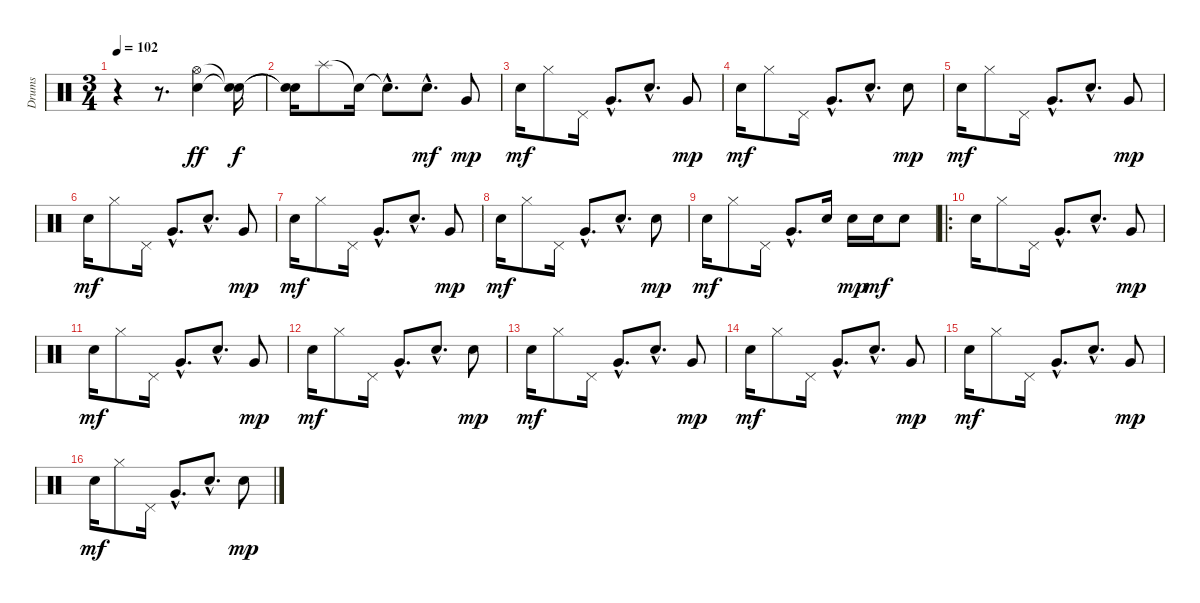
\track ("Drums" "Drums") {instrument percussion}
\staff {score}
\articulation defaults
\ts (3 4)
\tempo 102
\clef neutral
\ks c
r.4{dy ff} r.8{d} ("Hi-Hat (open)" "Electric Snare (hit)").4 ("Snare (hit)"{t} "Snare (hit)"{t}).16{dy f} |
("Snare (hit)"{t} "Snare (hit)"{t}).16 "Splash (hit)".8 "Snare (hit)"{t}.16 "Snare (hit)"{hac t}.8{d} "Electric Snare (hit)"{hac}.8{d dy mf} "Very Low Tom (hit)".8{dy mp} |
"Electric Snare (hit)".16{dy mf} "Hi-Hat (closed)".8 "Pedal Hi-Hat (hit)".16 "Very Low Tom (hit)"{hac}.8{d} "Electric Snare (hit)"{hac}.8{d} "Very Low Tom (hit)".8{dy mp} |
"Electric Snare (hit)".16{dy mf} "Hi-Hat (closed)".8 "Pedal Hi-Hat (hit)".16 "Very Low Tom (hit)"{hac}.8{d} "Electric Snare (hit)"{hac}.8{d} "Electric Snare (hit)".8{dy mp} |
"Electric Snare (hit)".16{dy mf} "Hi-Hat (closed)".8 "Pedal Hi-Hat (hit)".16 "Very Low Tom (hit)"{hac}.8{d} "Electric Snare (hit)"{hac}.8{d} "Very Low Tom (hit)".8{dy mp} |
"Electric Snare (hit)".16{dy mf} "Hi-Hat (closed)".8 "Pedal Hi-Hat (hit)".16 "Very Low Tom (hit)"{hac}.8{d} "Electric Snare (hit)"{hac}.8{d} "Very Low Tom (hit)".8{dy mp} |
"Electric Snare (hit)".16{dy mf} "Hi-Hat (closed)".8 "Pedal Hi-Hat (hit)".16 "Very Low Tom (hit)"{hac}.8{d} "Electric Snare (hit)"{hac}.8{d} "Very Low Tom (hit)".8{dy mp} |
"Electric Snare (hit)".16{dy mf} "Hi-Hat (closed)".8 "Pedal Hi-Hat (hit)".16 "Very Low Tom (hit)"{hac}.8{d} "Electric Snare (hit)"{hac}.8{d} "Electric Snare (hit)".8{dy mp} |
"Electric Snare (hit)".16{dy mf} "Hi-Hat (closed)".8 "Pedal Hi-Hat (hit)".16 "Very Low Tom (hit)"{hac}.8{d} "Electric Snare (hit)".16 "Electric Snare (hit)".16{dy mp} "Electric Snare (hit)".16{dy mf} "Electric Snare (hit)".8 |
\ro "Electric Snare (hit)".16{volume 12} "Hi-Hat (closed)".8 "Pedal Hi-Hat (hit)".16 "Very Low Tom (hit)"{hac}.8{d} "Electric Snare (hit)"{hac}.8{d} "Very Low Tom (hit)".8{dy mp}
|
"Electric Snare (hit)".16{dy mf} "Hi-Hat (closed)".8 "Pedal Hi-Hat (hit)".16 "Very Low Tom (hit)"{hac}.8{d} "Electric Snare (hit)"{hac}.8{d} "Very Low Tom (hit)".8{dy mp} |
"Electric Snare (hit)".16{dy mf} "Hi-Hat (closed)".8 "Pedal Hi-Hat (hit)".16 "Very Low Tom (hit)"{hac}.8{d} "Electric Snare (hit)"{hac}.8{d} "Electric Snare (hit)".8{dy mp} |
"Electric Snare (hit)".16{dy mf} "Hi-Hat (closed)".8 "Pedal Hi-Hat (hit)".16 "Very Low Tom (hit)"{hac}.8{d} "Electric Snare (hit)"{hac}.8{d} "Very Low Tom (hit)".8{dy mp} |
"Electric Snare (hit)".16{dy mf} "Hi-Hat (closed)".8 "Pedal Hi-Hat (hit)".16 "Very Low Tom (hit)"{hac}.8{d} "Electric Snare (hit)"{hac}.8{d} "Very Low Tom (hit)".8{dy mp} |
"Electric Snare (hit)".16{dy mf} "Hi-Hat (closed)".8 "Pedal Hi-Hat (hit)".16 "Very Low Tom (hit)"{hac}.8{d} "Electric Snare (hit)"{hac}.8{d} "Very Low Tom (hit)".8{dy mp} |
"Electric Snare (hit)".16{dy mf} "Hi-Hat (closed)".8 "Pedal Hi-Hat (hit)".16 "Very Low Tom (hit)"{hac}.8{d} "Electric Snare (hit)"{hac}.8{d} "Electric Snare (hit)".8{dy mp}
